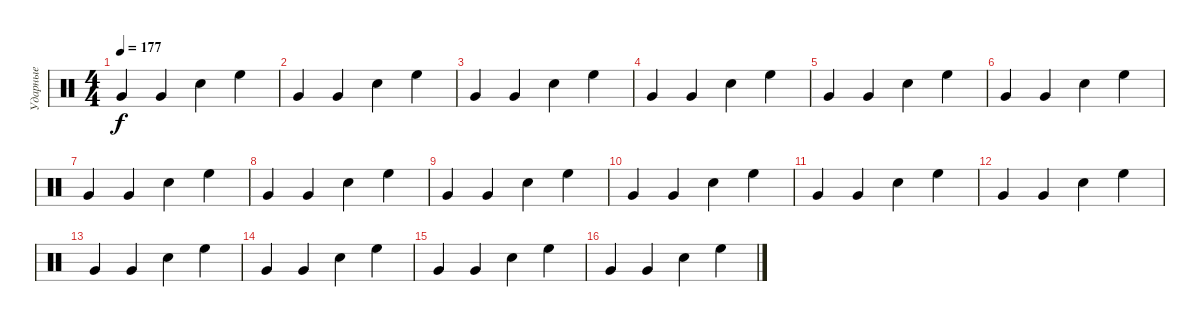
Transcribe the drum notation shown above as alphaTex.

\track ("Ударные" "Ударные") {instrument percussion}
\staff {score}
\articulation defaults
\ts (4 4)
\tempo 177
\clef neutral
\ks c "Very Low Tom (hit)".4{dy f} "Very Low Tom (hit)".4 "Electric Snare (hit)".4 "High Floor Tom (hit)".4
|
"Very Low Tom (hit)".4 "Very Low Tom (hit)".4 "Electric Snare (hit)".4 "High Floor Tom (hit)".4 |
"Very Low Tom (hit)".4 "Very Low Tom (hit)".4 "Electric Snare (hit)".4 "High Floor Tom (hit)".4 |
"Very Low Tom (hit)".4 "Very Low Tom (hit)".4 "Electric Snare (hit)".4 "High Floor Tom (hit)".4 |
"Very Low Tom (hit)".4 "Very Low Tom (hit)".4 "Electric Snare (hit)".4 "High Floor Tom (hit)".4 |
"Very Low Tom (hit)".4 "Very Low Tom (hit)".4 "Electric Snare (hit)".4 "High Floor Tom (hit)".4 |
"Very Low Tom (hit)".4 "Very Low Tom (hit)".4 "Electric Snare (hit)".4 "High Floor Tom (hit)".4 |
"Very Low Tom (hit)".4 "Very Low Tom (hit)".4 "Electric Snare (hit)".4 "High Floor Tom (hit)".4 |
"Very Low Tom (hit)".4 "Very Low Tom (hit)".4 "Electric Snare (hit)".4 "High Floor Tom (hit)".4 |
"Very Low Tom (hit)".4 "Very Low Tom (hit)".4 "Electric Snare (hit)".4 "High Floor Tom (hit)".4 |
"Very Low Tom (hit)".4 "Very Low Tom (hit)".4 "Electric Snare (hit)".4 "High Floor Tom (hit)".4 |
"Very Low Tom (hit)".4 "Very Low Tom (hit)".4 "Electric Snare (hit)".4 "High Floor Tom (hit)".4 |
"Very Low Tom (hit)".4 "Very Low Tom (hit)".4 "Electric Snare (hit)".4 "High Floor Tom (hit)".4 |
"Very Low Tom (hit)".4 "Very Low Tom (hit)".4 "Electric Snare (hit)".4 "High Floor Tom (hit)".4 |
"Very Low Tom (hit)".4 "Very Low Tom (hit)".4 "Electric Snare (hit)".4 "High Floor Tom (hit)".4 |
"Very Low Tom (hit)".4 "Very Low Tom (hit)".4 "Electric Snare (hit)".4 "High Floor Tom (hit)".4
